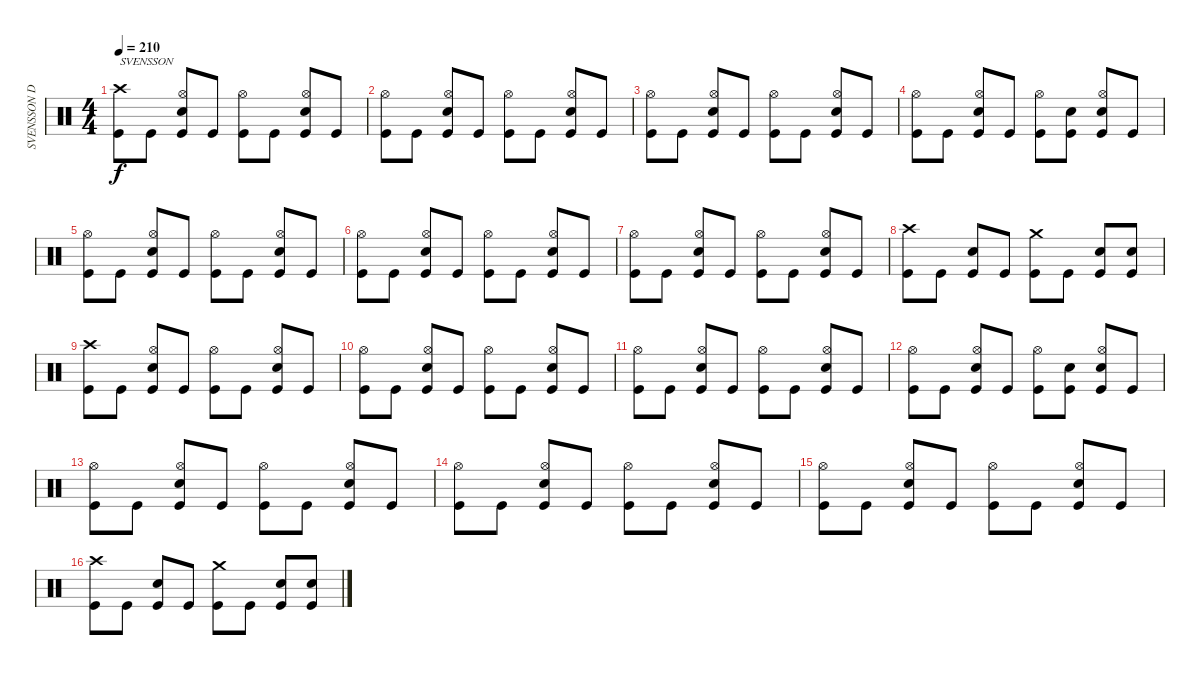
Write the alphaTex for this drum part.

\track ("SVENSSON DRUMS" "SVENSSON D") {instrument percussion}
\staff {score}
\articulation defaults
\ts (4 4)
\tempo 210
\clef neutral
\ks c
("Crash high (hit)" "Kick (hit)").8{txt "SVENSSON" dy f} "Kick (hit)".8 ("Hi-Hat (open)" "Electric Snare (hit)" "Kick (hit)").8 "Kick (hit)".8 ("Hi-Hat (open)" "Kick (hit)").8 "Kick (hit)".8 ("Hi-Hat (open)" "Electric Snare (hit)" "Kick (hit)").8 "Kick (hit)".8 |
("Hi-Hat (open)" "Kick (hit)").8 "Kick (hit)".8 ("Hi-Hat (open)" "Electric Snare (hit)" "Kick (hit)").8 "Kick (hit)".8 ("Hi-Hat (open)" "Kick (hit)").8 "Kick (hit)".8 ("Hi-Hat (open)" "Electric Snare (hit)" "Kick (hit)").8 "Kick (hit)".8 |
("Hi-Hat (open)" "Kick (hit)").8 "Kick (hit)".8 ("Hi-Hat (open)" "Electric Snare (hit)" "Kick (hit)").8 "Kick (hit)".8 ("Hi-Hat (open)" "Kick (hit)").8 "Kick (hit)".8 ("Hi-Hat (open)" "Electric Snare (hit)" "Kick (hit)").8 "Kick (hit)".8 |
("Hi-Hat (open)" "Kick (hit)").8 "Kick (hit)".8 ("Hi-Hat (open)" "Electric Snare (hit)" "Kick (hit)").8 "Kick (hit)".8 ("Hi-Hat (open)" "Kick (hit)").8 ("Electric Snare (hit)" "Kick (hit)").8 ("Hi-Hat (open)" "Electric Snare (hit)" "Kick (hit)").8 "Kick (hit)".8 |
("Hi-Hat (open)" "Kick (hit)").8 "Kick (hit)".8 ("Hi-Hat (open)" "Electric Snare (hit)" "Kick (hit)").8 "Kick (hit)".8 ("Hi-Hat (open)" "Kick (hit)").8 "Kick (hit)".8 ("Hi-Hat (open)" "Electric Snare (hit)" "Kick (hit)").8 "Kick (hit)".8 |
("Hi-Hat (open)" "Kick (hit)").8 "Kick (hit)".8 ("Hi-Hat (open)" "Electric Snare (hit)" "Kick (hit)").8 "Kick (hit)".8 ("Hi-Hat (open)" "Kick (hit)").8 "Kick (hit)".8 ("Hi-Hat (open)" "Electric Snare (hit)" "Kick (hit)").8 "Kick (hit)".8 |
("Hi-Hat (open)" "Kick (hit)").8 "Kick (hit)".8 ("Hi-Hat (open)" "Electric Snare (hit)" "Kick (hit)").8 "Kick (hit)".8 ("Hi-Hat (open)" "Kick (hit)").8 "Kick (hit)".8 ("Hi-Hat (open)" "Electric Snare (hit)" "Kick (hit)").8 "Kick (hit)".8 |
("Crash high (hit)" "Kick (hit)").8 "Kick (hit)".8 ("Electric Snare (hit)" "Kick (hit)").8 "Kick (hit)".8 ("Crash medium (hit)" "Kick (hit)").8 "Kick (hit)".8 ("Electric Snare (hit)" "Kick (hit)").8 ("Electric Snare (hit)" "Kick (hit)").8 |
("Crash high (hit)" "Kick (hit)").8 "Kick (hit)".8 ("Hi-Hat (open)" "Electric Snare (hit)" "Kick (hit)").8 "Kick (hit)".8 ("Hi-Hat (open)" "Kick (hit)").8 "Kick (hit)".8 ("Hi-Hat (open)" "Electric Snare (hit)" "Kick (hit)").8 "Kick (hit)".8 |
("Hi-Hat (open)" "Kick (hit)").8 "Kick (hit)".8 ("Hi-Hat (open)" "Electric Snare (hit)" "Kick (hit)").8 "Kick (hit)".8 ("Hi-Hat (open)" "Kick (hit)").8 "Kick (hit)".8 ("Hi-Hat (open)" "Electric Snare (hit)" "Kick (hit)").8 "Kick (hit)".8 |
("Hi-Hat (open)" "Kick (hit)").8 "Kick (hit)".8 ("Hi-Hat (open)" "Electric Snare (hit)" "Kick (hit)").8 "Kick (hit)".8 ("Hi-Hat (open)" "Kick (hit)").8 "Kick (hit)".8 ("Hi-Hat (open)" "Electric Snare (hit)" "Kick (hit)").8 "Kick (hit)".8 |
("Hi-Hat (open)" "Kick (hit)").8 "Kick (hit)".8 ("Hi-Hat (open)" "Electric Snare (hit)" "Kick (hit)").8 "Kick (hit)".8 ("Hi-Hat (open)" "Kick (hit)").8 ("Electric Snare (hit)" "Kick (hit)").8 ("Hi-Hat (open)" "Electric Snare (hit)" "Kick (hit)").8 "Kick (hit)".8 |
("Hi-Hat (open)" "Kick (hit)").8 "Kick (hit)".8 ("Hi-Hat (open)" "Electric Snare (hit)" "Kick (hit)").8 "Kick (hit)".8 ("Hi-Hat (open)" "Kick (hit)").8 "Kick (hit)".8 ("Hi-Hat (open)" "Electric Snare (hit)" "Kick (hit)").8 "Kick (hit)".8 |
("Hi-Hat (open)" "Kick (hit)").8 "Kick (hit)".8 ("Hi-Hat (open)" "Electric Snare (hit)" "Kick (hit)").8 "Kick (hit)".8 ("Hi-Hat (open)" "Kick (hit)").8 "Kick (hit)".8 ("Hi-Hat (open)" "Electric Snare (hit)" "Kick (hit)").8 "Kick (hit)".8 |
("Hi-Hat (open)" "Kick (hit)").8 "Kick (hit)".8 ("Hi-Hat (open)" "Electric Snare (hit)" "Kick (hit)").8 "Kick (hit)".8 ("Hi-Hat (open)" "Kick (hit)").8 "Kick (hit)".8 ("Hi-Hat (open)" "Electric Snare (hit)" "Kick (hit)").8 "Kick (hit)".8 |
("Crash high (hit)" "Kick (hit)").8 "Kick (hit)".8 ("Electric Snare (hit)" "Kick (hit)").8 "Kick (hit)".8 ("Crash medium (hit)" "Kick (hit)").8 "Kick (hit)".8 ("Electric Snare (hit)" "Kick (hit)").8 ("Electric Snare (hit)" "Kick (hit)").8
